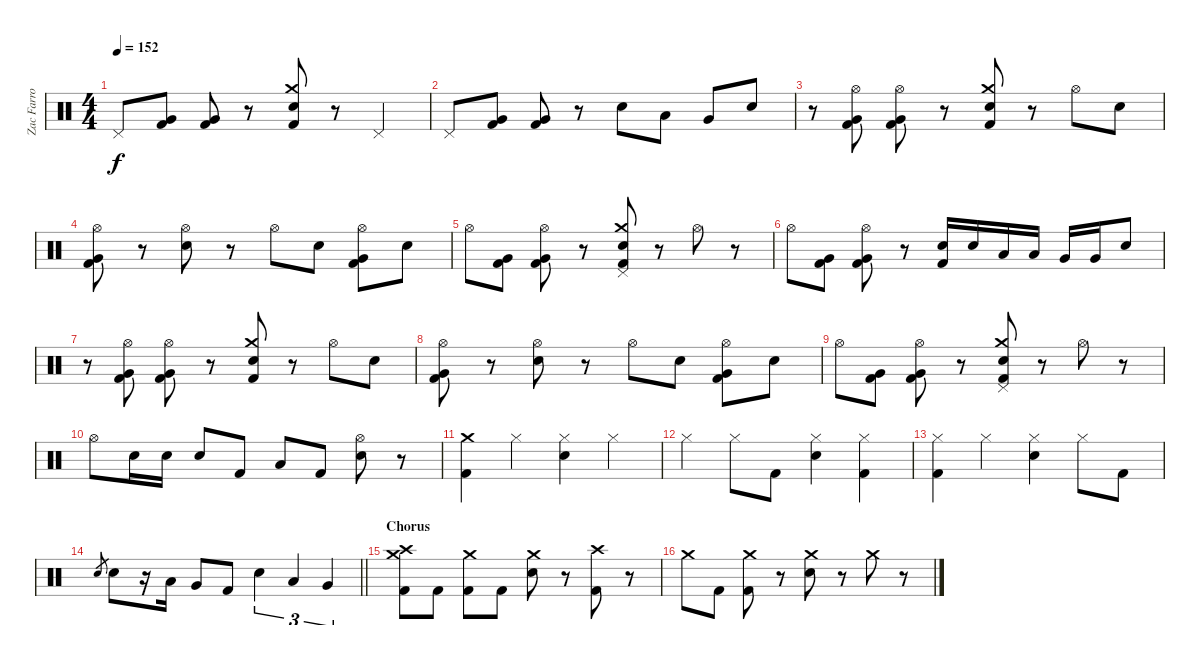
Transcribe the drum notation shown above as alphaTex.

\track ("Zac Farro - Drums" "Zac Farro ") {instrument percussion}
\staff {score}
\articulation defaults
\ts (4 4)
\tempo 152
\clef neutral
\ks c "Pedal Hi-Hat (hit)".8{dy f}
("Very Low Tom (hit)" "Kick (hit) 2").8 ("Very Low Tom (hit)" "Kick (hit) 2").8 r.8 ("Crash medium (hit)" "Electric Snare (hit)" "Kick (hit) 2").8 r.8 "Pedal Hi-Hat (hit)".4 |
"Pedal Hi-Hat (hit)".8 ("Very Low Tom (hit)" "Kick (hit) 2").8 ("Very Low Tom (hit)" "Kick (hit) 2").8 r.8 "Electric Snare (hit)".8 "Low Tom (hit)".8 "Very Low Tom (hit)".8 "Electric Snare (hit)".8 |
r.8 ("Hi-Hat (open)" "Very Low Tom (hit)" "Kick (hit) 2").8 ("Hi-Hat (open)" "Very Low Tom (hit)" "Kick (hit) 2").8 r.8 ("Crash medium (hit)" "Electric Snare (hit)" "Kick (hit) 2").8 r.8 "Hi-Hat (open)".8 "Electric Snare (hit)".8 |
("Hi-Hat (open)" "Very Low Tom (hit)" "Kick (hit) 2").8 r.8 ("Hi-Hat (open)" "Electric Snare (hit)").8 r.8 "Hi-Hat (open)".8 "Electric Snare (hit)".8 ("Hi-Hat (open)" "Very Low Tom (hit)" "Kick (hit) 2").8 "Electric Snare (hit)".8 |
"Hi-Hat (open)".8 ("Very Low Tom (hit)" "Kick (hit) 2").8 ("Hi-Hat (open)" "Very Low Tom (hit)" "Kick (hit) 2").8 r.8 ("Crash medium (hit)" "Pedal Hi-Hat (hit)" "Electric Snare (hit)" "Kick (hit) 2").8 r.8 "Hi-Hat (open)".8 r.8 |
"Hi-Hat (open)".8 ("Very Low Tom (hit)" "Kick (hit) 2").8 ("Hi-Hat (open)" "Very Low Tom (hit)" "Kick (hit) 2").8 r.8 ("Electric Snare (hit)" "Kick (hit) 2").16 "Electric Snare (hit)".16 "Low Tom (hit)".16 "Low Tom (hit)".16 "Very Low Tom (hit)".16 "Very Low Tom (hit)".16 "Electric Snare (hit)".8 |
r.8 ("Hi-Hat (open)" "Very Low Tom (hit)" "Kick (hit) 2").8 ("Hi-Hat (open)" "Very Low Tom (hit)" "Kick (hit) 2").8 r.8 ("Crash medium (hit)" "Electric Snare (hit)" "Kick (hit) 2").8 r.8 "Hi-Hat (open)".8 "Electric Snare (hit)".8 |
("Hi-Hat (open)" "Very Low Tom (hit)" "Kick (hit) 2").8 r.8 ("Hi-Hat (open)" "Electric Snare (hit)").8 r.8 "Hi-Hat (open)".8 "Electric Snare (hit)".8 ("Hi-Hat (open)" "Very Low Tom (hit)" "Kick (hit) 2").8 "Electric Snare (hit)".8 |
"Hi-Hat (open)".8 ("Very Low Tom (hit)" "Kick (hit) 2").8 ("Hi-Hat (open)" "Very Low Tom (hit)" "Kick (hit) 2").8 r.8 ("Crash medium (hit)" "Pedal Hi-Hat (hit)" "Electric Snare (hit)" "Kick (hit) 2").8 r.8 "Hi-Hat (open)".8 r.8 |
"Hi-Hat (open)".8 "Electric Snare (hit)".16 "Electric Snare (hit)".16 "Electric Snare (hit)".8 "Kick (hit) 2".8 "Low Tom (hit)".8 "Kick (hit) 2".8 ("Hi-Hat (open)" "Electric Snare (hit)").8 r.8 |
("Crash medium (hit)" "Kick (hit) 2").4 "Hi-Hat (closed)".4 ("Hi-Hat (closed)" "Electric Snare (hit)").4 "Hi-Hat (closed)".4 |
"Hi-Hat (closed)".4 "Hi-Hat (closed)".8 "Kick (hit) 2".8 ("Hi-Hat (closed)" "Electric Snare (hit)").4 ("Hi-Hat (closed)" "Kick (hit) 2").4 |
("Hi-Hat (closed)" "Kick (hit) 2").4 "Hi-Hat (closed)".4 ("Hi-Hat (closed)" "Electric Snare (hit)").4 "Hi-Hat (closed)".8 "Kick (hit) 2".8 |
\barLineRight lightlight "Electric Snare (hit)".8{gr} "Electric Snare (hit)".8
r.16 "Low Tom (hit)".16 "Very Low Tom (hit)".8 "Kick (hit) 2".8 "Electric Snare (hit)".4{tu (3 2)} "Low Tom (hit)".4{tu (3 2)} "Very Low Tom (hit)".4{tu (3 2)} |
\section ("" "Chorus")
("Crash high (hit)" "Crash medium (hit)" "Kick (hit) 2").8 "Kick (hit) 2".8 ("Crash medium (hit)" "Kick (hit) 2").8 "Kick (hit) 2".8 ("Crash medium (hit)" "Electric Snare (hit)").8 r.8 ("Crash high (hit)" "Kick (hit) 2").8 r.8 |
"Crash medium (hit)".8 "Kick (hit) 2".8 ("Crash medium (hit)" "Kick (hit) 2").8 r.8 ("Crash medium (hit)" "Electric Snare (hit)").8 r.8 "Crash medium (hit)".8 r.8
